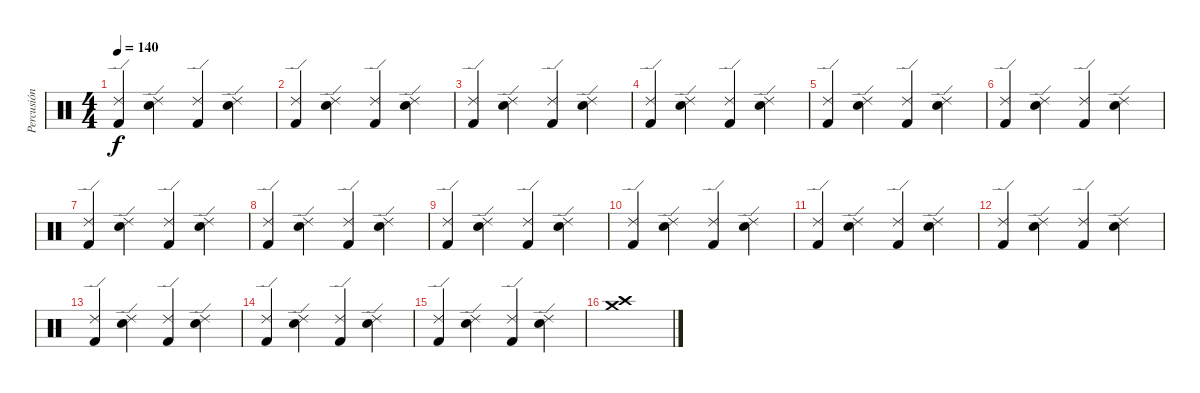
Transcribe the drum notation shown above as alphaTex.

\track ("Percusión" "Percusión") {instrument percussion}
\staff {score}
\articulation defaults
\ts (4 4)
\tempo 140
\clef neutral
\ks c
("Ride (edge) 2" "Kick (hit) 2").4{dy f} ("Ride (edge) 2" "Snare (hit) 2").4 ("Ride (edge) 2" "Kick (hit) 2").4 ("Ride (edge) 2" "Snare (hit) 2").4 |
("Ride (edge) 2" "Kick (hit) 2").4 ("Ride (edge) 2" "Snare (hit) 2").4 ("Ride (edge) 2" "Kick (hit) 2").4 ("Ride (edge) 2" "Snare (hit) 2").4 |
("Ride (edge) 2" "Kick (hit) 2").4 ("Ride (edge) 2" "Snare (hit) 2").4 ("Ride (edge) 2" "Kick (hit) 2").4 ("Ride (edge) 2" "Snare (hit) 2").4 |
("Ride (edge) 2" "Kick (hit) 2").4 ("Ride (edge) 2" "Snare (hit) 2").4 ("Ride (edge) 2" "Kick (hit) 2").4 ("Ride (edge) 2" "Snare (hit) 2").4 |
("Ride (edge) 2" "Kick (hit) 2").4 ("Ride (edge) 2" "Snare (hit) 2").4 ("Ride (edge) 2" "Kick (hit) 2").4 ("Ride (edge) 2" "Snare (hit) 2").4 |
("Ride (edge) 2" "Kick (hit) 2").4 ("Ride (edge) 2" "Snare (hit) 2").4 ("Ride (edge) 2" "Kick (hit) 2").4 ("Ride (edge) 2" "Snare (hit) 2").4 |
("Ride (edge) 2" "Kick (hit) 2").4 ("Ride (edge) 2" "Snare (hit) 2").4 ("Ride (edge) 2" "Kick (hit) 2").4 ("Ride (edge) 2" "Snare (hit) 2").4 |
("Ride (edge) 2" "Kick (hit) 2").4 ("Ride (edge) 2" "Snare (hit) 2").4 ("Ride (edge) 2" "Kick (hit) 2").4 ("Ride (edge) 2" "Snare (hit) 2").4 |
("Ride (edge) 2" "Kick (hit) 2").4 ("Ride (edge) 2" "Snare (hit) 2").4 ("Ride (edge) 2" "Kick (hit) 2").4 ("Ride (edge) 2" "Snare (hit) 2").4 |
("Ride (edge) 2" "Kick (hit) 2").4 ("Ride (edge) 2" "Snare (hit) 2").4 ("Ride (edge) 2" "Kick (hit) 2").4 ("Ride (edge) 2" "Snare (hit) 2").4 |
("Ride (edge) 2" "Kick (hit) 2").4 ("Ride (edge) 2" "Snare (hit) 2").4 ("Ride (edge) 2" "Kick (hit) 2").4 ("Ride (edge) 2" "Snare (hit) 2").4 |
("Ride (edge) 2" "Kick (hit) 2").4 ("Ride (edge) 2" "Snare (hit) 2").4 ("Ride (edge) 2" "Kick (hit) 2").4 ("Ride (edge) 2" "Snare (hit) 2").4 |
("Ride (edge) 2" "Kick (hit) 2").4 ("Ride (edge) 2" "Snare (hit) 2").4 ("Ride (edge) 2" "Kick (hit) 2").4 ("Ride (edge) 2" "Snare (hit) 2").4 |
("Ride (edge) 2" "Kick (hit) 2").4 ("Ride (edge) 2" "Snare (hit) 2").4 ("Ride (edge) 2" "Kick (hit) 2").4 ("Ride (edge) 2" "Snare (hit) 2").4 |
("Ride (edge) 2" "Kick (hit) 2").4 ("Ride (edge) 2" "Snare (hit) 2").4 ("Ride (edge) 2" "Kick (hit) 2").4 ("Ride (edge) 2" "Snare (hit) 2").4 |
("Crash high (hit)" "Crash medium (hit)").1
